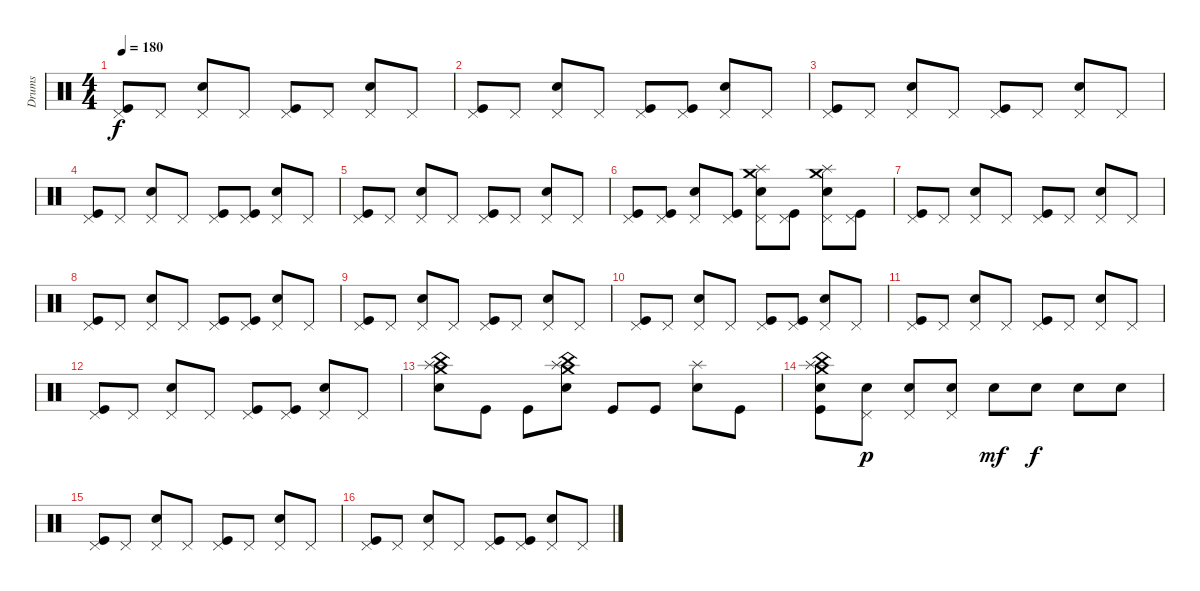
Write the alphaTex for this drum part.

\track ("Drums" "Drums") {instrument percussion}
\staff {score}
\articulation defaults
\ts (4 4)
\tempo 180
\clef neutral
\ks c
("Pedal Hi-Hat (hit)" "Kick (hit)").8{dy f} "Pedal Hi-Hat (hit)".8 ("Pedal Hi-Hat (hit)" "Snare (hit) 2").8 "Pedal Hi-Hat (hit)".8 ("Pedal Hi-Hat (hit)" "Kick (hit)").8 "Pedal Hi-Hat (hit)".8 ("Pedal Hi-Hat (hit)" "Snare (hit) 2").8 "Pedal Hi-Hat (hit)".8 |
("Pedal Hi-Hat (hit)" "Kick (hit)").8 "Pedal Hi-Hat (hit)".8 ("Pedal Hi-Hat (hit)" "Snare (hit) 2").8 "Pedal Hi-Hat (hit)".8 ("Pedal Hi-Hat (hit)" "Kick (hit)").8 ("Pedal Hi-Hat (hit)" "Kick (hit)").8 ("Pedal Hi-Hat (hit)" "Snare (hit) 2").8 "Pedal Hi-Hat (hit)".8 |
("Pedal Hi-Hat (hit)" "Kick (hit)").8 "Pedal Hi-Hat (hit)".8 ("Pedal Hi-Hat (hit)" "Snare (hit) 2").8 "Pedal Hi-Hat (hit)".8 ("Pedal Hi-Hat (hit)" "Kick (hit)").8 "Pedal Hi-Hat (hit)".8 ("Pedal Hi-Hat (hit)" "Snare (hit) 2").8 "Pedal Hi-Hat (hit)".8 |
("Pedal Hi-Hat (hit)" "Kick (hit)").8 "Pedal Hi-Hat (hit)".8 ("Pedal Hi-Hat (hit)" "Snare (hit) 2").8 "Pedal Hi-Hat (hit)".8 ("Pedal Hi-Hat (hit)" "Kick (hit)").8 ("Pedal Hi-Hat (hit)" "Kick (hit)").8 ("Pedal Hi-Hat (hit)" "Snare (hit) 2").8 "Pedal Hi-Hat (hit)".8 |
("Pedal Hi-Hat (hit)" "Kick (hit)").8 "Pedal Hi-Hat (hit)".8 ("Pedal Hi-Hat (hit)" "Snare (hit) 2").8 "Pedal Hi-Hat (hit)".8 ("Pedal Hi-Hat (hit)" "Kick (hit)").8 "Pedal Hi-Hat (hit)".8 ("Pedal Hi-Hat (hit)" "Snare (hit) 2").8 "Pedal Hi-Hat (hit)".8 |
("Pedal Hi-Hat (hit)" "Kick (hit)").8 ("Pedal Hi-Hat (hit)" "Kick (hit)").8 ("Pedal Hi-Hat (hit)" "Snare (hit) 2").8 ("Pedal Hi-Hat (hit)" "Kick (hit)").8 ("Pedal Hi-Hat (hit)" "Crash medium (hit)" "Splash (hit)" "Snare (hit) 2").8 ("Pedal Hi-Hat (hit)" "Kick (hit)").8 ("Pedal Hi-Hat (hit)" "Crash medium (hit)" "Splash (hit)" "Snare (hit) 2").8 ("Pedal Hi-Hat (hit)" "Kick (hit)").8 |
("Pedal Hi-Hat (hit)" "Kick (hit)").8 "Pedal Hi-Hat (hit)".8 ("Pedal Hi-Hat (hit)" "Snare (hit) 2").8 "Pedal Hi-Hat (hit)".8 ("Pedal Hi-Hat (hit)" "Kick (hit)").8 "Pedal Hi-Hat (hit)".8 ("Pedal Hi-Hat (hit)" "Snare (hit) 2").8 "Pedal Hi-Hat (hit)".8 |
("Pedal Hi-Hat (hit)" "Kick (hit)").8 "Pedal Hi-Hat (hit)".8 ("Pedal Hi-Hat (hit)" "Snare (hit) 2").8 "Pedal Hi-Hat (hit)".8 ("Pedal Hi-Hat (hit)" "Kick (hit)").8 ("Pedal Hi-Hat (hit)" "Kick (hit)").8 ("Pedal Hi-Hat (hit)" "Snare (hit) 2").8 "Pedal Hi-Hat (hit)".8 |
("Pedal Hi-Hat (hit)" "Kick (hit)").8 "Pedal Hi-Hat (hit)".8 ("Pedal Hi-Hat (hit)" "Snare (hit) 2").8 "Pedal Hi-Hat (hit)".8 ("Pedal Hi-Hat (hit)" "Kick (hit)").8 "Pedal Hi-Hat (hit)".8 ("Pedal Hi-Hat (hit)" "Snare (hit) 2").8 "Pedal Hi-Hat (hit)".8 |
("Pedal Hi-Hat (hit)" "Kick (hit)").8 "Pedal Hi-Hat (hit)".8 ("Pedal Hi-Hat (hit)" "Snare (hit) 2").8 "Pedal Hi-Hat (hit)".8 ("Pedal Hi-Hat (hit)" "Kick (hit)").8 ("Pedal Hi-Hat (hit)" "Kick (hit)").8 ("Pedal Hi-Hat (hit)" "Snare (hit) 2").8 "Pedal Hi-Hat (hit)".8 |
("Pedal Hi-Hat (hit)" "Kick (hit)").8 "Pedal Hi-Hat (hit)".8 ("Pedal Hi-Hat (hit)" "Snare (hit) 2").8 "Pedal Hi-Hat (hit)".8 ("Pedal Hi-Hat (hit)" "Kick (hit)").8 "Pedal Hi-Hat (hit)".8 ("Pedal Hi-Hat (hit)" "Snare (hit) 2").8 "Pedal Hi-Hat (hit)".8 |
("Pedal Hi-Hat (hit)" "Kick (hit)").8 "Pedal Hi-Hat (hit)".8 ("Pedal Hi-Hat (hit)" "Snare (hit) 2").8 "Pedal Hi-Hat (hit)".8 ("Pedal Hi-Hat (hit)" "Kick (hit)").8 ("Pedal Hi-Hat (hit)" "Kick (hit)").8 ("Pedal Hi-Hat (hit)" "Snare (hit) 2").8 "Pedal Hi-Hat (hit)".8 |
("Splash (hit)" "China (hit)" "Crash medium (hit)" "Snare (hit) 2").8 "Kick (hit)".8 "Kick (hit)".8 ("China (hit)" "Splash (hit)" "Crash medium (hit)" "Snare (hit) 2").8 "Kick (hit)".8 "Kick (hit)".8 ("Splash (hit)" "Snare (hit) 2").8 "Kick (hit)".8 |
("Crash medium (hit)" "Splash (hit)" "China (hit)" "Snare (hit) 2" "Kick (hit)").8 ("Pedal Hi-Hat (hit)" "Snare (hit) 2").8{dy p} ("Pedal Hi-Hat (hit)" "Snare (hit) 2").8 ("Pedal Hi-Hat (hit)" "Snare (hit) 2").8 "Snare (hit) 2".8{dy mf} "Snare (hit) 2".8{dy f} "Snare (hit) 2".8 "Snare (hit) 2".8 |
("Pedal Hi-Hat (hit)" "Kick (hit)").8 "Pedal Hi-Hat (hit)".8 ("Pedal Hi-Hat (hit)" "Snare (hit) 2").8 "Pedal Hi-Hat (hit)".8 ("Pedal Hi-Hat (hit)" "Kick (hit)").8 "Pedal Hi-Hat (hit)".8 ("Pedal Hi-Hat (hit)" "Snare (hit) 2").8 "Pedal Hi-Hat (hit)".8 |
("Pedal Hi-Hat (hit)" "Kick (hit)").8 "Pedal Hi-Hat (hit)".8 ("Pedal Hi-Hat (hit)" "Snare (hit) 2").8 "Pedal Hi-Hat (hit)".8 ("Pedal Hi-Hat (hit)" "Kick (hit)").8 ("Pedal Hi-Hat (hit)" "Kick (hit)").8 ("Pedal Hi-Hat (hit)" "Snare (hit) 2").8 "Pedal Hi-Hat (hit)".8
